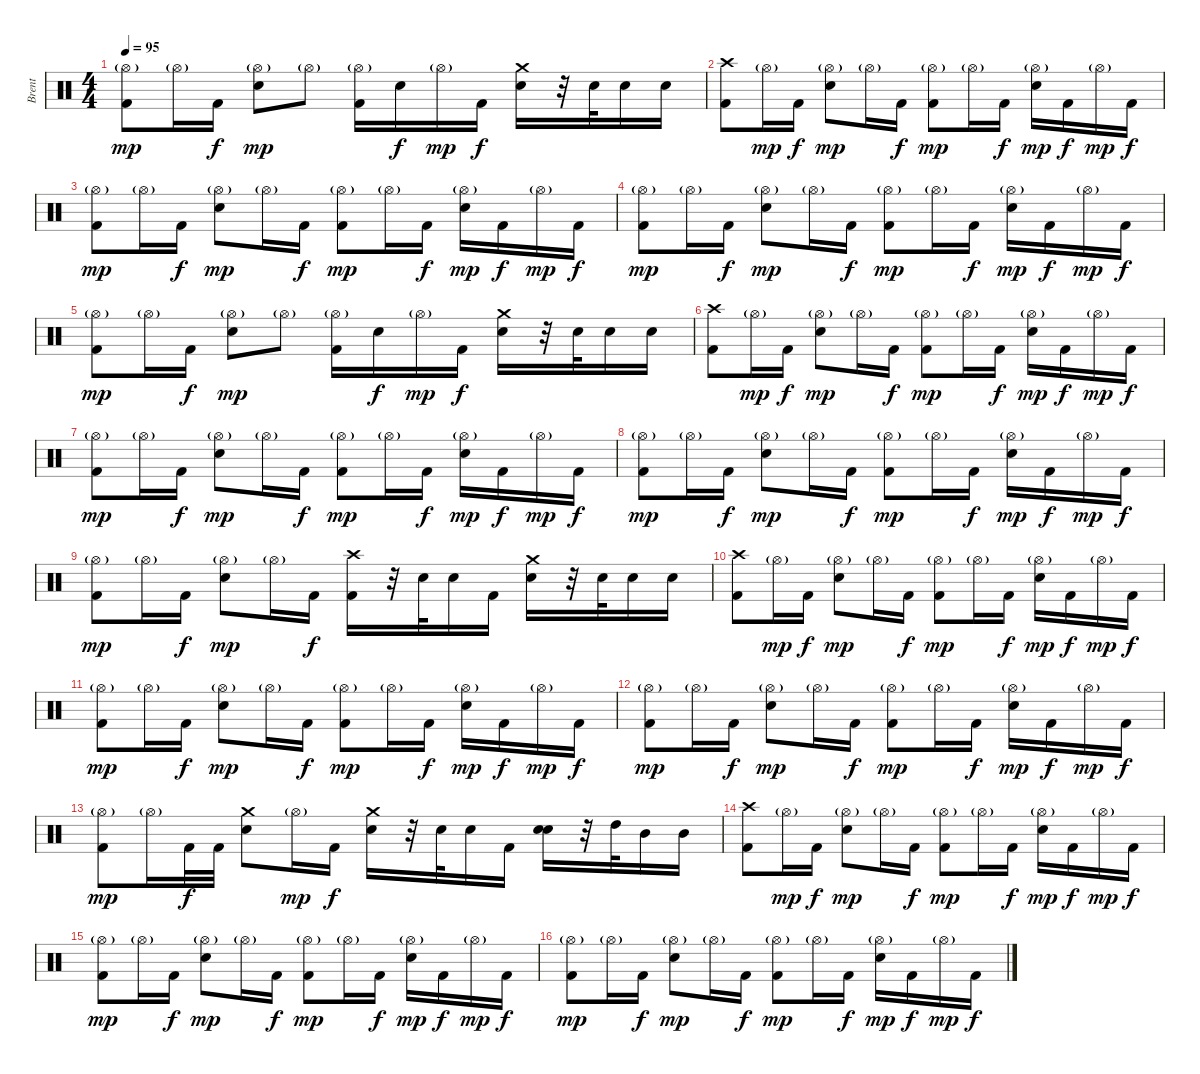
\track ("Brent" "Brent") {instrument percussion}
\staff {score}
\articulation defaults
\ts (4 4)
\tempo 95
\clef neutral
\ks c
("Hi-Hat (open)"{g} "Kick (hit) 2").8{dy mp} "Hi-Hat (open)"{g}.16 "Kick (hit) 2".16{dy f} ("Hi-Hat (open)"{g} "Snare (hit) 2").8{dy mp} "Hi-Hat (open)"{g}.8 ("Hi-Hat (open)"{g} "Kick (hit) 2").16 "Snare (hit) 2".16{dy f} "Hi-Hat (open)"{g}.16{dy mp} "Kick (hit) 2".16{dy f} ("Crash medium (hit)" "Snare (hit) 2").16 r.32 "Snare (hit) 2".32 "Snare (hit) 2".16 "Snare (hit) 2".16 |
("Crash high (hit)" "Kick (hit) 2").8 "Hi-Hat (open)"{g}.16{dy mp} "Kick (hit) 2".16{dy f} ("Hi-Hat (open)"{g} "Snare (hit) 2").8{dy mp} "Hi-Hat (open)"{g}.16 "Kick (hit) 2".16{dy f} ("Hi-Hat (open)"{g} "Kick (hit) 2").8{dy mp} "Hi-Hat (open)"{g}.16 "Kick (hit) 2".16{dy f} ("Hi-Hat (open)"{g} "Snare (hit) 2").16{dy mp} "Kick (hit) 2".16{dy f} "Hi-Hat (open)"{g}.16{dy mp} "Kick (hit) 2".16{dy f} |
("Hi-Hat (open)"{g} "Kick (hit) 2").8{dy mp} "Hi-Hat (open)"{g}.16 "Kick (hit) 2".16{dy f} ("Hi-Hat (open)"{g} "Snare (hit) 2").8{dy mp} "Hi-Hat (open)"{g}.16 "Kick (hit) 2".16{dy f} ("Hi-Hat (open)"{g} "Kick (hit) 2").8{dy mp} "Hi-Hat (open)"{g}.16 "Kick (hit) 2".16{dy f} ("Hi-Hat (open)"{g} "Snare (hit) 2").16{dy mp} "Kick (hit) 2".16{dy f} "Hi-Hat (open)"{g}.16{dy mp} "Kick (hit) 2".16{dy f} |
("Hi-Hat (open)"{g} "Kick (hit) 2").8{dy mp} "Hi-Hat (open)"{g}.16 "Kick (hit) 2".16{dy f} ("Hi-Hat (open)"{g} "Snare (hit) 2").8{dy mp} "Hi-Hat (open)"{g}.16 "Kick (hit) 2".16{dy f} ("Hi-Hat (open)"{g} "Kick (hit) 2").8{dy mp} "Hi-Hat (open)"{g}.16 "Kick (hit) 2".16{dy f} ("Hi-Hat (open)"{g} "Snare (hit) 2").16{dy mp} "Kick (hit) 2".16{dy f} "Hi-Hat (open)"{g}.16{dy mp} "Kick (hit) 2".16{dy f} |
("Hi-Hat (open)"{g} "Kick (hit) 2").8{dy mp} "Hi-Hat (open)"{g}.16 "Kick (hit) 2".16{dy f} ("Hi-Hat (open)"{g} "Snare (hit) 2").8{dy mp} "Hi-Hat (open)"{g}.8 ("Hi-Hat (open)"{g} "Kick (hit) 2").16 "Snare (hit) 2".16{dy f} "Hi-Hat (open)"{g}.16{dy mp} "Kick (hit) 2".16{dy f} ("Crash medium (hit)" "Snare (hit) 2").16 r.32 "Snare (hit) 2".32 "Snare (hit) 2".16 "Snare (hit) 2".16 |
("Crash high (hit)" "Kick (hit) 2").8 "Hi-Hat (open)"{g}.16{dy mp} "Kick (hit) 2".16{dy f} ("Hi-Hat (open)"{g} "Snare (hit) 2").8{dy mp} "Hi-Hat (open)"{g}.16 "Kick (hit) 2".16{dy f} ("Hi-Hat (open)"{g} "Kick (hit) 2").8{dy mp} "Hi-Hat (open)"{g}.16 "Kick (hit) 2".16{dy f} ("Hi-Hat (open)"{g} "Snare (hit) 2").16{dy mp} "Kick (hit) 2".16{dy f} "Hi-Hat (open)"{g}.16{dy mp} "Kick (hit) 2".16{dy f} |
("Hi-Hat (open)"{g} "Kick (hit) 2").8{dy mp} "Hi-Hat (open)"{g}.16 "Kick (hit) 2".16{dy f} ("Hi-Hat (open)"{g} "Snare (hit) 2").8{dy mp} "Hi-Hat (open)"{g}.16 "Kick (hit) 2".16{dy f} ("Hi-Hat (open)"{g} "Kick (hit) 2").8{dy mp} "Hi-Hat (open)"{g}.16 "Kick (hit) 2".16{dy f} ("Hi-Hat (open)"{g} "Snare (hit) 2").16{dy mp} "Kick (hit) 2".16{dy f} "Hi-Hat (open)"{g}.16{dy mp} "Kick (hit) 2".16{dy f} |
("Hi-Hat (open)"{g} "Kick (hit) 2").8{dy mp} "Hi-Hat (open)"{g}.16 "Kick (hit) 2".16{dy f} ("Hi-Hat (open)"{g} "Snare (hit) 2").8{dy mp} "Hi-Hat (open)"{g}.16 "Kick (hit) 2".16{dy f} ("Hi-Hat (open)"{g} "Kick (hit) 2").8{dy mp} "Hi-Hat (open)"{g}.16 "Kick (hit) 2".16{dy f} ("Hi-Hat (open)"{g} "Snare (hit) 2").16{dy mp} "Kick (hit) 2".16{dy f} "Hi-Hat (open)"{g}.16{dy mp} "Kick (hit) 2".16{dy f} |
("Hi-Hat (open)"{g} "Kick (hit) 2").8{dy mp} "Hi-Hat (open)"{g}.16 "Kick (hit) 2".16{dy f} ("Hi-Hat (open)"{g} "Snare (hit) 2").8{dy mp} "Hi-Hat (open)"{g}.16 "Kick (hit) 2".16{dy f} ("Crash high (hit)" "Kick (hit) 2").16 r.32 "Snare (hit) 2".32 "Snare (hit) 2".16 "Kick (hit) 2".16 ("Crash medium (hit)" "Snare (hit) 2").16 r.32 "Snare (hit) 2".32 "Snare (hit) 2".16 "Snare (hit) 2".16 |
("Crash high (hit)" "Kick (hit) 2").8 "Hi-Hat (open)"{g}.16{dy mp} "Kick (hit) 2".16{dy f} ("Hi-Hat (open)"{g} "Snare (hit) 2").8{dy mp} "Hi-Hat (open)"{g}.16 "Kick (hit) 2".16{dy f} ("Hi-Hat (open)"{g} "Kick (hit) 2").8{dy mp} "Hi-Hat (open)"{g}.16 "Kick (hit) 2".16{dy f} ("Hi-Hat (open)"{g} "Snare (hit) 2").16{dy mp} "Kick (hit) 2".16{dy f} "Hi-Hat (open)"{g}.16{dy mp} "Kick (hit) 2".16{dy f} |
("Hi-Hat (open)"{g} "Kick (hit) 2").8{dy mp} "Hi-Hat (open)"{g}.16 "Kick (hit) 2".16{dy f} ("Hi-Hat (open)"{g} "Snare (hit) 2").8{dy mp} "Hi-Hat (open)"{g}.16 "Kick (hit) 2".16{dy f} ("Hi-Hat (open)"{g} "Kick (hit) 2").8{dy mp} "Hi-Hat (open)"{g}.16 "Kick (hit) 2".16{dy f} ("Hi-Hat (open)"{g} "Snare (hit) 2").16{dy mp} "Kick (hit) 2".16{dy f} "Hi-Hat (open)"{g}.16{dy mp} "Kick (hit) 2".16{dy f} |
("Hi-Hat (open)"{g} "Kick (hit) 2").8{dy mp} "Hi-Hat (open)"{g}.16 "Kick (hit) 2".16{dy f} ("Hi-Hat (open)"{g} "Snare (hit) 2").8{dy mp} "Hi-Hat (open)"{g}.16 "Kick (hit) 2".16{dy f} ("Hi-Hat (open)"{g} "Kick (hit) 2").8{dy mp} "Hi-Hat (open)"{g}.16 "Kick (hit) 2".16{dy f} ("Hi-Hat (open)"{g} "Snare (hit) 2").16{dy mp} "Kick (hit) 2".16{dy f} "Hi-Hat (open)"{g}.16{dy mp} "Kick (hit) 2".16{dy f} |
("Hi-Hat (open)"{g} "Kick (hit) 2").8{dy mp} "Hi-Hat (open)"{g}.16 "Kick (hit) 2".32{dy f} "Kick (hit) 2".32 ("Crash medium (hit)" "Snare (hit) 2").8 "Hi-Hat (open)"{g}.16{dy mp} "Kick (hit) 2".16{dy f} ("Crash medium (hit)" "Snare (hit) 2").16 r.32 "Snare (hit) 2".32 "Snare (hit) 2".16 "Kick (hit) 2".16 ("Snare (hit) 2" "Snare (hit) 2").16 r.32 "High Tom (hit)".32 "Mid Tom (hit)".16 "Mid Tom (hit)".16 |
("Crash high (hit)" "Kick (hit) 2").8 "Hi-Hat (open)"{g}.16{dy mp} "Kick (hit) 2".16{dy f} ("Hi-Hat (open)"{g} "Snare (hit) 2").8{dy mp} "Hi-Hat (open)"{g}.16 "Kick (hit) 2".16{dy f} ("Hi-Hat (open)"{g} "Kick (hit) 2").8{dy mp} "Hi-Hat (open)"{g}.16 "Kick (hit) 2".16{dy f} ("Hi-Hat (open)"{g} "Snare (hit) 2").16{dy mp} "Kick (hit) 2".16{dy f} "Hi-Hat (open)"{g}.16{dy mp} "Kick (hit) 2".16{dy f} |
("Hi-Hat (open)"{g} "Kick (hit) 2").8{dy mp} "Hi-Hat (open)"{g}.16 "Kick (hit) 2".16{dy f} ("Hi-Hat (open)"{g} "Snare (hit) 2").8{dy mp} "Hi-Hat (open)"{g}.16 "Kick (hit) 2".16{dy f} ("Hi-Hat (open)"{g} "Kick (hit) 2").8{dy mp} "Hi-Hat (open)"{g}.16 "Kick (hit) 2".16{dy f} ("Hi-Hat (open)"{g} "Snare (hit) 2").16{dy mp} "Kick (hit) 2".16{dy f} "Hi-Hat (open)"{g}.16{dy mp} "Kick (hit) 2".16{dy f} |
("Hi-Hat (open)"{g} "Kick (hit) 2").8{dy mp} "Hi-Hat (open)"{g}.16 "Kick (hit) 2".16{dy f} ("Hi-Hat (open)"{g} "Snare (hit) 2").8{dy mp} "Hi-Hat (open)"{g}.16 "Kick (hit) 2".16{dy f} ("Hi-Hat (open)"{g} "Kick (hit) 2").8{dy mp} "Hi-Hat (open)"{g}.16 "Kick (hit) 2".16{dy f} ("Hi-Hat (open)"{g} "Snare (hit) 2").16{dy mp} "Kick (hit) 2".16{dy f} "Hi-Hat (open)"{g}.16{dy mp} "Kick (hit) 2".16{dy f}
